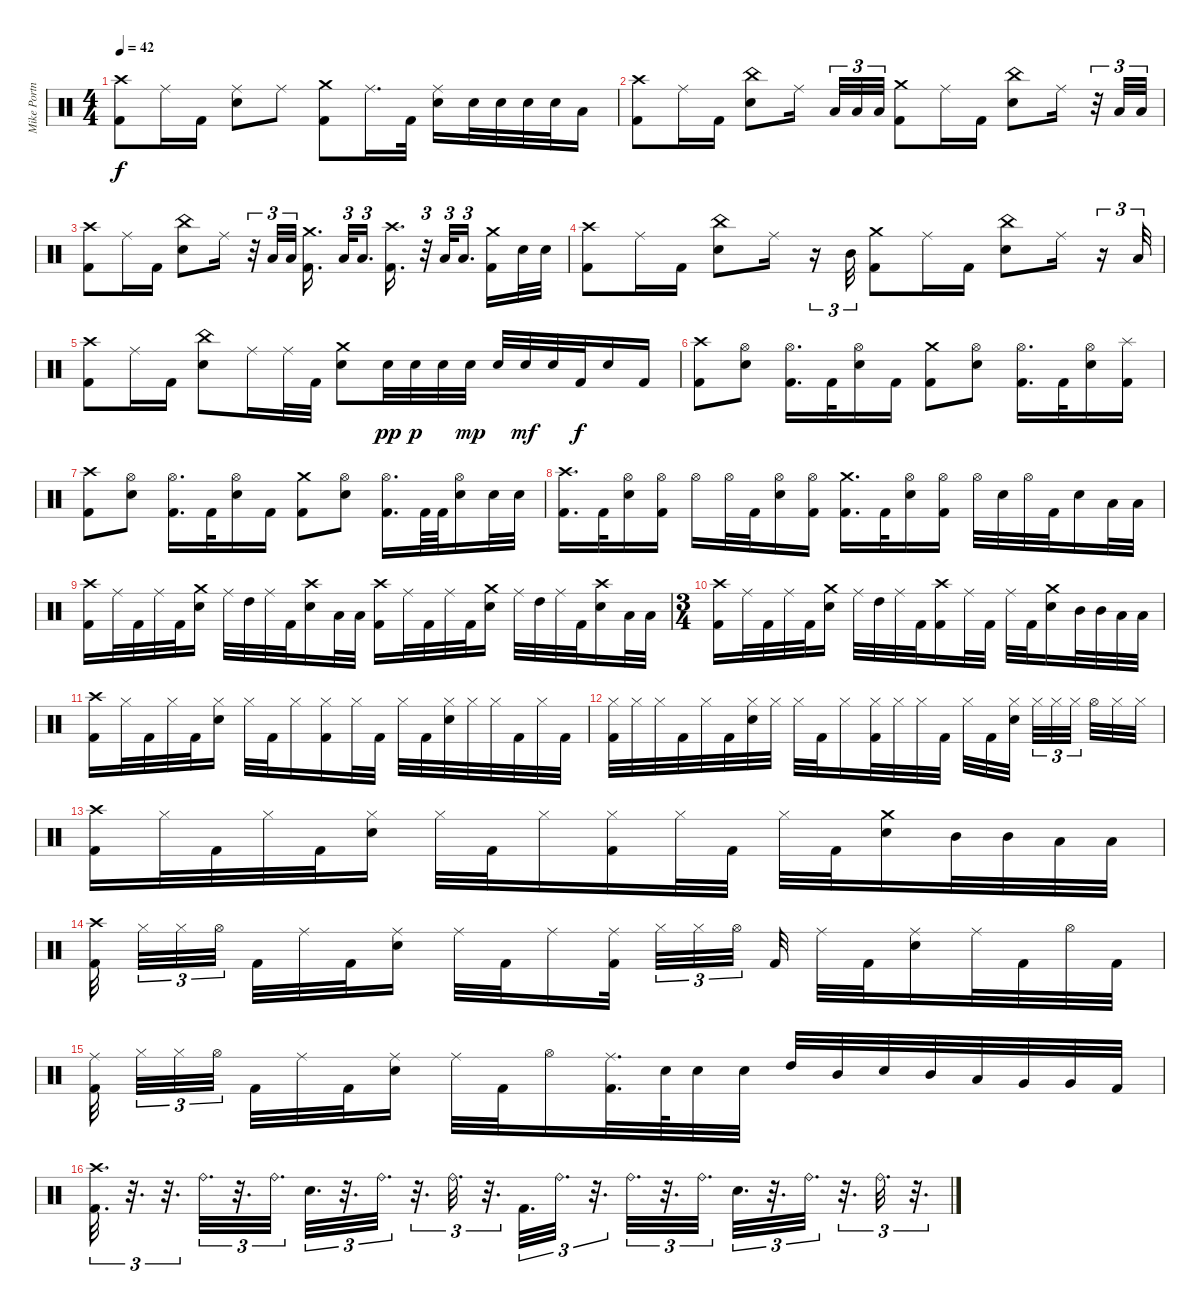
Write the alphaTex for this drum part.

\track ("Mike Portnoy" "Mike Portn") {instrument percussion}
\staff {score}
\articulation defaults
\ts (4 4)
\tempo 42
\clef neutral
\ks c
("Crash high (hit)" "Kick (hit) 2").8{dy f} "Ride (middle)".16 "Kick (hit) 2".16 ("Ride (middle)" "Snare (hit) 2").8 "Ride (middle)".8 ("Crash medium (hit)" "Kick (hit) 2").8 "Ride (middle)".16{d} "Kick (hit) 2".32 ("Ride (middle)" "Snare (hit) 2").16 "Snare (hit) 2".32 "Snare (hit) 2".32 "Snare (hit) 2".32 "Snare (hit) 2".32 "Low Tom (hit)".16 |
("Crash high (hit)" "Kick (hit) 2").8 "Ride (middle)".16 "Kick (hit) 2".16 ("China (hit)" "Snare (hit) 2").8 "Ride (middle)".16{beam splitsecondary} "Low Tom (hit)".32{tu (3 2)} "Low Tom (hit)".32{tu (3 2)} "Low Tom (hit)".32{tu (3 2)} ("Crash medium (hit)" "Kick (hit) 2").8 "Ride (middle)".16 "Kick (hit) 2".16 ("China (hit)" "Snare (hit) 2").8 "Ride (middle)".16 r.32{tu (3 2)} "Low Tom (hit)".32{tu (3 2)} "Low Tom (hit)".32{tu (3 2)} |
("Crash high (hit)" "Kick (hit) 2").8 "Ride (middle)".16 "Kick (hit) 2".16 ("China (hit)" "Snare (hit) 2").8 "Ride (middle)".16 r.32{tu (3 2)} "Low Tom (hit)".32{tu (3 2)} "Low Tom (hit)".32{tu (3 2)} ("Crash medium (hit)" "Kick (hit) 2").16{d beam splitsecondary} "Low Tom (hit)".32{tu (3 2)} "Low Tom (hit)".16{d tu (3 2) beam splitsecondary} ("Crash high (hit)" "Kick (hit) 2").16{d} r.32{tu (3 2)} "Low Tom (hit)".32{tu (3 2)} "Low Tom (hit)".16{d tu (3 2) beam splitsecondary} ("Crash medium (hit)" "Kick (hit) 2").16 "Snare (hit) 2".32 "Snare (hit) 2".32 |
("Crash high (hit)" "Kick (hit) 2").8 "Ride (middle)".16 "Kick (hit) 2".16 ("China (hit)" "Snare (hit) 2").8 "Ride (middle)".16 r.16{tu (3 2)} "Mid Tom (hit)".32{tu (3 2)} ("Crash medium (hit)" "Kick (hit) 2").8 "Ride (middle)".16 "Kick (hit) 2".16 ("China (hit)" "Snare (hit) 2").8 "Ride (middle)".16 r.16{tu (3 2)} "Low Tom (hit)".32{tu (3 2)} |
("Crash high (hit)" "Kick (hit) 2").8 "Ride (middle)".16 "Kick (hit) 2".16 ("China (hit)" "Snare (hit) 2").8 "Ride (middle)".16 "Ride (middle)".32 "Kick (hit) 2".32 ("Crash medium (hit)" "Snare (hit) 2").8 "Snare (hit) 2".32{dy pp} "Snare (hit) 2".32{dy p} "Snare (hit) 2".32 "Snare (hit) 2".32{dy mp} "Snare (hit) 2".32 "Snare (hit) 2".32{dy mf} "Snare (hit) 2".32 "Kick (hit) 2".32{dy f} "Snare (hit) 2".16 "Kick (hit) 2".16 |
("Crash high (hit)" "Kick (hit) 2").8 ("Hi-Hat (open)" "Snare (hit) 2").8 ("Hi-Hat (open)" "Kick (hit) 2").16{d} "Kick (hit) 2".32 ("Hi-Hat (open)" "Snare (hit) 2").16 "Kick (hit) 2".16 ("Crash medium (hit)" "Kick (hit) 2").8 ("Hi-Hat (open)" "Snare (hit) 2").8 ("Hi-Hat (open)" "Kick (hit) 2").16{d} "Kick (hit) 2".32 ("Hi-Hat (open)" "Snare (hit) 2").16 ("Splash (hit)" "Kick (hit) 2").16 |
("Crash high (hit)" "Kick (hit) 2").8 ("Hi-Hat (open)" "Snare (hit) 2").8 ("Hi-Hat (open)" "Kick (hit) 2").16{d} "Kick (hit) 2".32 ("Hi-Hat (open)" "Snare (hit) 2").16 "Kick (hit) 2".16 ("Crash medium (hit)" "Kick (hit) 2").8 ("Hi-Hat (open)" "Snare (hit) 2").8 ("Hi-Hat (open)" "Kick (hit) 2").16{d} "Kick (hit) 2".64 "Kick (hit) 2".64 ("Hi-Hat (open)" "Snare (hit) 2").16 "Snare (hit) 2".32 "Snare (hit) 2".32 |
("Crash high (hit)" "Kick (hit) 2").16{d} "Kick (hit) 2".32 ("Hi-Hat (open)" "Snare (hit) 2").16 ("Hi-Hat (open)" "Kick (hit) 2").16 "Hi-Hat (open)".16 "Hi-Hat (open)".32 "Kick (hit) 2".32 ("Hi-Hat (open)" "Snare (hit) 2").16 ("Hi-Hat (open)" "Kick (hit) 2").16 ("Crash medium (hit)" "Kick (hit) 2").16{d} "Kick (hit) 2".32 ("Hi-Hat (open)" "Snare (hit) 2").16 ("Hi-Hat (open)" "Kick (hit) 2").16 "Hi-Hat (open)".32 "Snare (hit) 2".32 "Hi-Hat (open)".32 "Kick (hit) 2".32 "Snare (hit) 2".16 "Low Tom (hit)".32 "Low Tom (hit)".32 |
("Crash high (hit)" "Kick (hit) 2").16 "Ride (middle)".32 "Kick (hit) 2".32 "Ride (middle)".32 "Kick (hit) 2".32 ("Crash medium (hit)" "Snare (hit) 2").16 "Ride (middle)".32 "High Tom (hit)".32 "Ride (middle)".32 "Kick (hit) 2".32 ("Crash high (hit)" "Snare (hit) 2").16 "Low Tom (hit)".32 "Low Tom (hit)".32 ("Crash high (hit)" "Kick (hit) 2").16 "Ride (middle)".32 "Kick (hit) 2".32 "Ride (middle)".32 "Kick (hit) 2".32 ("Crash medium (hit)" "Snare (hit) 2").16 "Ride (middle)".32 "High Tom (hit)".32 "Ride (middle)".32 "Kick (hit) 2".32 ("Crash high (hit)" "Snare (hit) 2").16 "Low Tom (hit)".32 "Low Tom (hit)".32 |
\ts (3 4)
("Crash high (hit)" "Kick (hit) 2").16 "Ride (middle)".32 "Kick (hit) 2".32 "Ride (middle)".32 "Kick (hit) 2".32 ("Crash medium (hit)" "Snare (hit) 2").16 "Ride (middle)".32 "High Tom (hit)".32 "Ride (middle)".32 "Kick (hit) 2".32 ("Crash high (hit)" "Kick (hit) 2").16 "Ride (middle)".32 "Kick (hit) 2".32 "Ride (middle)".32 "Kick (hit) 2".32 ("Crash medium (hit)" "Snare (hit) 2").16 "Mid Tom (hit)".32 "Mid Tom (hit)".32 "Low Tom (hit)".32 "Low Tom (hit)".32 |
("Crash high (hit)" "Kick (hit) 2").16 "Hi-Hat (closed)".32 "Kick (hit) 2".32 "Hi-Hat (closed)".32 "Kick (hit) 2".32 ("Hi-Hat (closed)" "Snare (hit) 2").16 "Hi-Hat (closed)".32 "Kick (hit) 2".32 "Hi-Hat (closed)".16 ("Hi-Hat (closed)" "Kick (hit) 2").16 "Hi-Hat (closed)".32 "Kick (hit) 2".32 "Hi-Hat (closed)".32 "Kick (hit) 2".32 ("Hi-Hat (closed)" "Snare (hit) 2").32 "Hi-Hat (closed)".32 "Hi-Hat (closed)".32 "Kick (hit) 2".32 "Hi-Hat (closed)".32 "Kick (hit) 2".32 |
("Hi-Hat (closed)" "Kick (hit) 2").32 "Hi-Hat (closed)".32 "Hi-Hat (closed)".32 "Kick (hit) 2".32 "Hi-Hat (closed)".32 "Kick (hit) 2".32 ("Hi-Hat (closed)" "Snare (hit) 2").32 "Hi-Hat (closed)".32 "Hi-Hat (closed)".32 "Kick (hit) 2".32 "Hi-Hat (closed)".16 ("Hi-Hat (closed)" "Kick (hit) 2").32 "Hi-Hat (closed)".32 "Hi-Hat (closed)".32 "Kick (hit) 2".32 "Hi-Hat (closed)".32 "Kick (hit) 2".32 ("Hi-Hat (closed)" "Snare (hit) 2").32{beam splitsecondary} "Hi-Hat (closed)".32{tu (3 2)} "Hi-Hat (closed)".32{tu (3 2)} "Hi-Hat (closed)".32{tu (3 2) beam splitsecondary} "Hi-Hat (open)".32 "Hi-Hat (closed)".32 "Hi-Hat (closed)".32 |
("Crash high (hit)" "Kick (hit) 2").16 "Hi-Hat (closed)".32 "Kick (hit) 2".32 "Hi-Hat (closed)".32 "Kick (hit) 2".32 ("Hi-Hat (closed)" "Snare (hit) 2").16 "Hi-Hat (closed)".32 "Kick (hit) 2".32 "Hi-Hat (closed)".16 ("Hi-Hat (closed)" "Kick (hit) 2").16 "Hi-Hat (closed)".32 "Kick (hit) 2".32 "Hi-Hat (closed)".32 "Kick (hit) 2".32 ("Crash medium (hit)" "Snare (hit) 2").16 "Mid Tom (hit)".32 "Mid Tom (hit)".32 "Low Tom (hit)".32 "Low Tom (hit)".32 |
("Crash high (hit)" "Kick (hit) 2").32{beam splitsecondary} "Hi-Hat (closed)".32{tu (3 2)} "Hi-Hat (closed)".32{tu (3 2)} "Hi-Hat (open)".32{tu (3 2) beam splitsecondary} "Kick (hit) 2".32 "Ride (middle)".32 "Kick (hit) 2".32 ("Ride (middle)" "Snare (hit) 2").16 "Ride (middle)".32 "Kick (hit) 2".32 "Ride (middle)".16 ("Ride (middle)" "Kick (hit) 2").32{beam splitsecondary} "Hi-Hat (closed)".32{tu (3 2)} "Hi-Hat (closed)".32{tu (3 2)} "Hi-Hat (open)".32{tu (3 2) beam splitsecondary} "Kick (hit) 2".32 "Ride (middle)".32 "Kick (hit) 2".32 ("Ride (middle)" "Snare (hit) 2").16 "Ride (middle)".32 "Kick (hit) 2".32 "Hi-Hat (open)".32 "Kick (hit) 2".32 |
("Ride (middle)" "Kick (hit) 2").32{beam splitsecondary} "Hi-Hat (closed)".32{tu (3 2)} "Hi-Hat (closed)".32{tu (3 2)} "Hi-Hat (open)".32{tu (3 2) beam splitsecondary} "Kick (hit) 2".32 "Ride (middle)".32 "Kick (hit) 2".32 ("Ride (middle)" "Snare (hit) 2").16 "Ride (middle)".32 "Kick (hit) 2".32 "Hi-Hat (open)".16 ("Ride (middle)" "Kick (hit) 2").32{d} "Snare (hit) 2".64 "Snare (hit) 2".32 "Snare (hit) 2".32 "High Tom (hit)".32 "Mid Tom (hit)".32 "Snare (hit) 2".32 "Mid Tom (hit)".32 "Low Tom (hit)".32 "Very Low Tom (hit)".32 "Very Low Tom (hit)".32 "Kick (hit) 2".32 |
("Crash high (hit)" "Kick (hit) 2").32{d tu (3 2)} r.32{d tu (3 2)} r.32{d tu (3 2)} "Ride (bell)".32{d tu (3 2)} r.32{d tu (3 2)} "Ride (bell)".32{d tu (3 2)} "Snare (hit) 2".32{d tu (3 2)} r.32{d tu (3 2)} "Ride (bell)".32{d tu (3 2)} r.32{d tu (3 2)} "Ride (bell)".32{d tu (3 2)} r.32{d tu (3 2)} "Kick (hit) 2".32{d tu (3 2)} "Ride (bell)".32{d tu (3 2)} r.32{d tu (3 2)} "Ride (bell)".32{d tu (3 2)} r.32{d tu (3 2)} "Ride (bell)".32{d tu (3 2)} "Snare (hit) 2".32{d tu (3 2)} r.32{d tu (3 2)} "Ride (bell)".32{d tu (3 2)} r.32{d tu (3 2)} "Ride (bell)".32{d tu (3 2)} r.32{d tu (3 2)}
